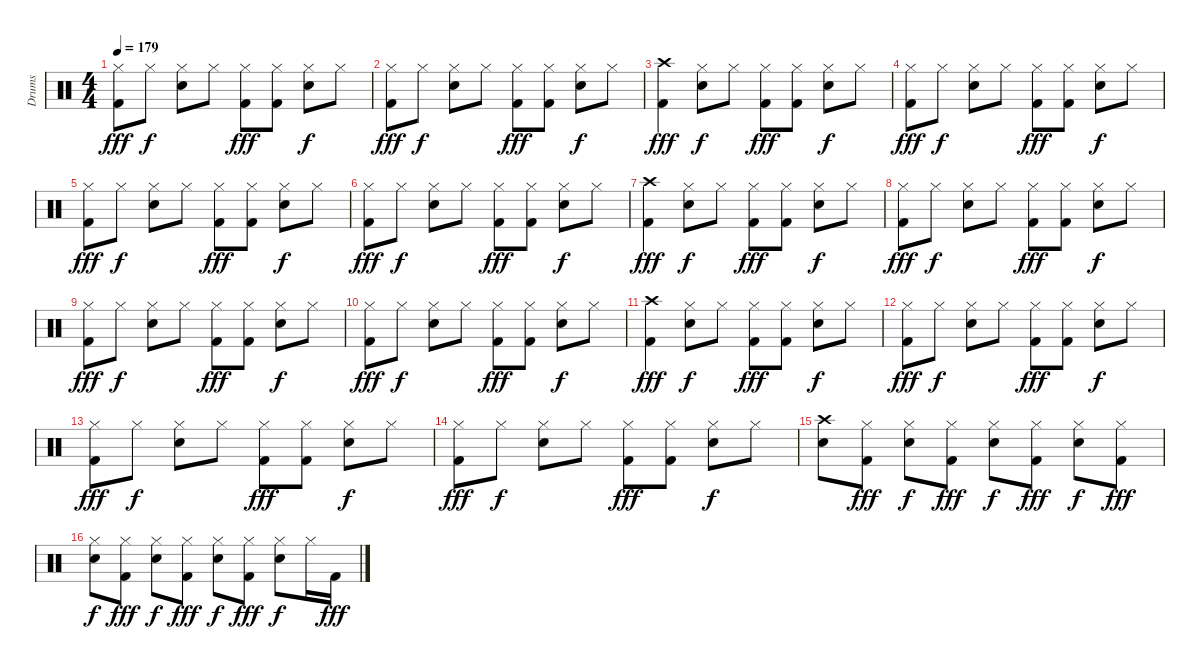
\track ("Drums" "Drums") {instrument percussion}
\staff {score}
\articulation defaults
\ts (4 4)
\tempo 179
\clef neutral
\ks c
("Hi-Hat (closed)" "Kick (hit) 2").8{dy fff} "Hi-Hat (closed)".8{dy f} ("Hi-Hat (closed)" "Electric Snare (hit)").8 "Hi-Hat (closed)".8 ("Hi-Hat (closed)" "Kick (hit) 2").8{dy fff} ("Hi-Hat (closed)" "Kick (hit) 2").8 ("Hi-Hat (closed)" "Electric Snare (hit)").8{dy f} "Hi-Hat (closed)".8 |
("Hi-Hat (closed)" "Kick (hit) 2").8{dy fff} "Hi-Hat (closed)".8{dy f} ("Hi-Hat (closed)" "Electric Snare (hit)").8 "Hi-Hat (closed)".8 ("Hi-Hat (closed)" "Kick (hit) 2").8{dy fff} ("Hi-Hat (closed)" "Kick (hit) 2").8 ("Hi-Hat (closed)" "Electric Snare (hit)").8{dy f} "Hi-Hat (closed)".8 |
("Crash high (hit)" "Kick (hit) 2").4{dy fff} ("Hi-Hat (closed)" "Electric Snare (hit)").8{dy f} "Hi-Hat (closed)".8 ("Hi-Hat (closed)" "Kick (hit) 2").8{dy fff} ("Hi-Hat (closed)" "Kick (hit) 2").8 ("Hi-Hat (closed)" "Electric Snare (hit)").8{dy f} "Hi-Hat (closed)".8 |
("Hi-Hat (closed)" "Kick (hit) 2").8{dy fff} "Hi-Hat (closed)".8{dy f} ("Hi-Hat (closed)" "Electric Snare (hit)").8 "Hi-Hat (closed)".8 ("Hi-Hat (closed)" "Kick (hit) 2").8{dy fff} ("Hi-Hat (closed)" "Kick (hit) 2").8 ("Hi-Hat (closed)" "Electric Snare (hit)").8{dy f} "Hi-Hat (closed)".8 |
("Hi-Hat (closed)" "Kick (hit) 2").8{dy fff} "Hi-Hat (closed)".8{dy f} ("Hi-Hat (closed)" "Electric Snare (hit)").8 "Hi-Hat (closed)".8 ("Hi-Hat (closed)" "Kick (hit) 2").8{dy fff} ("Hi-Hat (closed)" "Kick (hit) 2").8 ("Hi-Hat (closed)" "Electric Snare (hit)").8{dy f} "Hi-Hat (closed)".8 |
("Hi-Hat (closed)" "Kick (hit) 2").8{dy fff} "Hi-Hat (closed)".8{dy f} ("Hi-Hat (closed)" "Electric Snare (hit)").8 "Hi-Hat (closed)".8 ("Hi-Hat (closed)" "Kick (hit) 2").8{dy fff} ("Hi-Hat (closed)" "Kick (hit) 2").8 ("Hi-Hat (closed)" "Electric Snare (hit)").8{dy f} "Hi-Hat (closed)".8 |
("Crash high (hit)" "Kick (hit) 2").4{dy fff} ("Hi-Hat (closed)" "Electric Snare (hit)").8{dy f} "Hi-Hat (closed)".8 ("Hi-Hat (closed)" "Kick (hit) 2").8{dy fff} ("Hi-Hat (closed)" "Kick (hit) 2").8 ("Hi-Hat (closed)" "Electric Snare (hit)").8{dy f} "Hi-Hat (closed)".8 |
("Hi-Hat (closed)" "Kick (hit) 2").8{dy fff} "Hi-Hat (closed)".8{dy f} ("Hi-Hat (closed)" "Electric Snare (hit)").8 "Hi-Hat (closed)".8 ("Hi-Hat (closed)" "Kick (hit) 2").8{dy fff} ("Hi-Hat (closed)" "Kick (hit) 2").8 ("Hi-Hat (closed)" "Electric Snare (hit)").8{dy f} "Hi-Hat (closed)".8 |
("Hi-Hat (closed)" "Kick (hit) 2").8{dy fff} "Hi-Hat (closed)".8{dy f} ("Hi-Hat (closed)" "Electric Snare (hit)").8 "Hi-Hat (closed)".8 ("Hi-Hat (closed)" "Kick (hit) 2").8{dy fff} ("Hi-Hat (closed)" "Kick (hit) 2").8 ("Hi-Hat (closed)" "Electric Snare (hit)").8{dy f} "Hi-Hat (closed)".8 |
("Hi-Hat (closed)" "Kick (hit) 2").8{dy fff} "Hi-Hat (closed)".8{dy f} ("Hi-Hat (closed)" "Electric Snare (hit)").8 "Hi-Hat (closed)".8 ("Hi-Hat (closed)" "Kick (hit) 2").8{dy fff} ("Hi-Hat (closed)" "Kick (hit) 2").8 ("Hi-Hat (closed)" "Electric Snare (hit)").8{dy f} "Hi-Hat (closed)".8 |
("Crash high (hit)" "Kick (hit) 2").4{dy fff} ("Hi-Hat (closed)" "Electric Snare (hit)").8{dy f} "Hi-Hat (closed)".8 ("Hi-Hat (closed)" "Kick (hit) 2").8{dy fff} ("Hi-Hat (closed)" "Kick (hit) 2").8 ("Hi-Hat (closed)" "Electric Snare (hit)").8{dy f} "Hi-Hat (closed)".8 |
("Hi-Hat (closed)" "Kick (hit) 2").8{dy fff} "Hi-Hat (closed)".8{dy f} ("Hi-Hat (closed)" "Electric Snare (hit)").8 "Hi-Hat (closed)".8 ("Hi-Hat (closed)" "Kick (hit) 2").8{dy fff} ("Hi-Hat (closed)" "Kick (hit) 2").8 ("Hi-Hat (closed)" "Electric Snare (hit)").8{dy f} "Hi-Hat (closed)".8 |
("Hi-Hat (closed)" "Kick (hit) 2").8{dy fff} "Hi-Hat (closed)".8{dy f} ("Hi-Hat (closed)" "Electric Snare (hit)").8 "Hi-Hat (closed)".8 ("Hi-Hat (closed)" "Kick (hit) 2").8{dy fff} ("Hi-Hat (closed)" "Kick (hit) 2").8 ("Hi-Hat (closed)" "Electric Snare (hit)").8{dy f} "Hi-Hat (closed)".8 |
("Hi-Hat (closed)" "Kick (hit) 2").8{dy fff} "Hi-Hat (closed)".8{dy f} ("Hi-Hat (closed)" "Electric Snare (hit)").8 "Hi-Hat (closed)".8 ("Hi-Hat (closed)" "Kick (hit) 2").8{dy fff} ("Hi-Hat (closed)" "Kick (hit) 2").8 ("Hi-Hat (closed)" "Electric Snare (hit)").8{dy f} "Hi-Hat (closed)".8 |
("Crash high (hit)" "Electric Snare (hit)").8 ("Hi-Hat (closed)" "Kick (hit) 2").8{dy fff} ("Hi-Hat (closed)" "Electric Snare (hit)").8{dy f} ("Hi-Hat (closed)" "Kick (hit) 2").8{dy fff} ("Hi-Hat (closed)" "Electric Snare (hit)").8{dy f} ("Hi-Hat (closed)" "Kick (hit) 2").8{dy fff} ("Hi-Hat (closed)" "Electric Snare (hit)").8{dy f} ("Hi-Hat (closed)" "Kick (hit) 2").8{dy fff} |
("Hi-Hat (closed)" "Electric Snare (hit)").8{dy f} ("Hi-Hat (closed)" "Kick (hit) 2").8{dy fff} ("Hi-Hat (closed)" "Electric Snare (hit)").8{dy f} ("Hi-Hat (closed)" "Kick (hit) 2").8{dy fff} ("Hi-Hat (closed)" "Electric Snare (hit)").8{dy f} ("Hi-Hat (closed)" "Kick (hit) 2").8{dy fff} ("Hi-Hat (closed)" "Electric Snare (hit)").8{dy f} "Hi-Hat (closed)".16 "Kick (hit) 2".16{dy fff}
